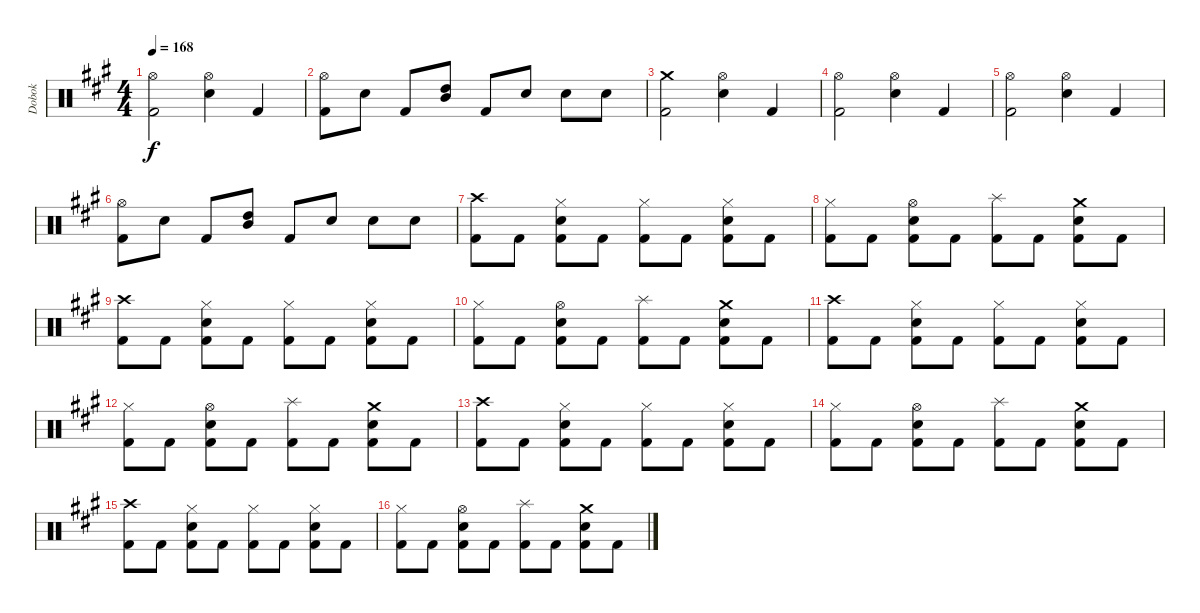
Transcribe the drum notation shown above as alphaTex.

\track ("Dobok" "Dobok") {instrument percussion}
\staff {score}
\articulation defaults
\ts (4 4)
\tempo 168
\clef neutral
\ks f#minor
("Hi-Hat (open)" "Kick (hit) 2").2{dy f} ("Hi-Hat (open)" "Snare (hit) 2").4 "Kick (hit) 2".4 |
("Hi-Hat (open)" "Kick (hit) 2").8 "Snare (hit) 2".8 "Kick (hit) 2".8 ("High Tom (hit)" "Mid Tom (hit)").8 "Kick (hit) 2".8 "Snare (hit) 2".8 "Snare (hit) 2".8 "Snare (hit) 2".8 |
("Crash medium (hit)" "Kick (hit) 2").2 ("Hi-Hat (open)" "Snare (hit) 2").4 "Kick (hit) 2".4 |
("Hi-Hat (open)" "Kick (hit) 2").2 ("Hi-Hat (open)" "Snare (hit) 2").4 "Kick (hit) 2".4 |
("Hi-Hat (open)" "Kick (hit) 2").2 ("Hi-Hat (open)" "Snare (hit) 2").4 "Kick (hit) 2".4 |
("Hi-Hat (open)" "Kick (hit) 2").8 "Snare (hit) 2".8 "Kick (hit) 2".8 ("High Tom (hit)" "Mid Tom (hit)").8 "Kick (hit) 2".8 "Snare (hit) 2".8 "Snare (hit) 2".8 "Snare (hit) 2".8 |
("Crash high (hit)" "Kick (hit) 2").8 "Kick (hit) 2".8 ("Hi-Hat (closed)" "Snare (hit) 2" "Kick (hit) 2").8 "Kick (hit) 2".8 ("Hi-Hat (closed)" "Kick (hit) 2").8 "Kick (hit) 2".8 ("Hi-Hat (closed)" "Snare (hit) 2" "Kick (hit) 2").8 "Kick (hit) 2".8 |
("Hi-Hat (closed)" "Kick (hit) 2").8 "Kick (hit) 2".8 ("Hi-Hat (open)" "Snare (hit) 2" "Kick (hit) 2").8 "Kick (hit) 2".8 ("Splash (hit)" "Kick (hit) 2").8 "Kick (hit) 2".8 ("Crash medium (hit)" "Snare (hit) 2" "Kick (hit) 2").8 "Kick (hit) 2".8 |
("Crash high (hit)" "Kick (hit) 2").8 "Kick (hit) 2".8 ("Hi-Hat (closed)" "Snare (hit) 2" "Kick (hit) 2").8 "Kick (hit) 2".8 ("Hi-Hat (closed)" "Kick (hit) 2").8 "Kick (hit) 2".8 ("Hi-Hat (closed)" "Snare (hit) 2" "Kick (hit) 2").8 "Kick (hit) 2".8 |
("Hi-Hat (closed)" "Kick (hit) 2").8 "Kick (hit) 2".8 ("Hi-Hat (open)" "Snare (hit) 2" "Kick (hit) 2").8 "Kick (hit) 2".8 ("Splash (hit)" "Kick (hit) 2").8 "Kick (hit) 2".8 ("Crash medium (hit)" "Snare (hit) 2" "Kick (hit) 2").8 "Kick (hit) 2".8 |
("Crash high (hit)" "Kick (hit) 2").8 "Kick (hit) 2".8 ("Hi-Hat (closed)" "Snare (hit) 2" "Kick (hit) 2").8 "Kick (hit) 2".8 ("Hi-Hat (closed)" "Kick (hit) 2").8 "Kick (hit) 2".8 ("Hi-Hat (closed)" "Snare (hit) 2" "Kick (hit) 2").8 "Kick (hit) 2".8 |
("Hi-Hat (closed)" "Kick (hit) 2").8 "Kick (hit) 2".8 ("Hi-Hat (open)" "Snare (hit) 2" "Kick (hit) 2").8 "Kick (hit) 2".8 ("Splash (hit)" "Kick (hit) 2").8 "Kick (hit) 2".8 ("Crash medium (hit)" "Snare (hit) 2" "Kick (hit) 2").8 "Kick (hit) 2".8 |
("Crash high (hit)" "Kick (hit) 2").8 "Kick (hit) 2".8 ("Hi-Hat (closed)" "Snare (hit) 2" "Kick (hit) 2").8 "Kick (hit) 2".8 ("Hi-Hat (closed)" "Kick (hit) 2").8 "Kick (hit) 2".8 ("Hi-Hat (closed)" "Snare (hit) 2" "Kick (hit) 2").8 "Kick (hit) 2".8 |
("Hi-Hat (closed)" "Kick (hit) 2").8 "Kick (hit) 2".8 ("Hi-Hat (open)" "Snare (hit) 2" "Kick (hit) 2").8 "Kick (hit) 2".8 ("Splash (hit)" "Kick (hit) 2").8 "Kick (hit) 2".8 ("Crash medium (hit)" "Snare (hit) 2" "Kick (hit) 2").8 "Kick (hit) 2".8 |
("Crash high (hit)" "Kick (hit) 2").8 "Kick (hit) 2".8 ("Hi-Hat (closed)" "Snare (hit) 2" "Kick (hit) 2").8 "Kick (hit) 2".8 ("Hi-Hat (closed)" "Kick (hit) 2").8 "Kick (hit) 2".8 ("Hi-Hat (closed)" "Snare (hit) 2" "Kick (hit) 2").8 "Kick (hit) 2".8 |
("Hi-Hat (closed)" "Kick (hit) 2").8 "Kick (hit) 2".8 ("Hi-Hat (open)" "Snare (hit) 2" "Kick (hit) 2").8 "Kick (hit) 2".8 ("Splash (hit)" "Kick (hit) 2").8 "Kick (hit) 2".8 ("Crash medium (hit)" "Snare (hit) 2" "Kick (hit) 2").8 "Kick (hit) 2".8
